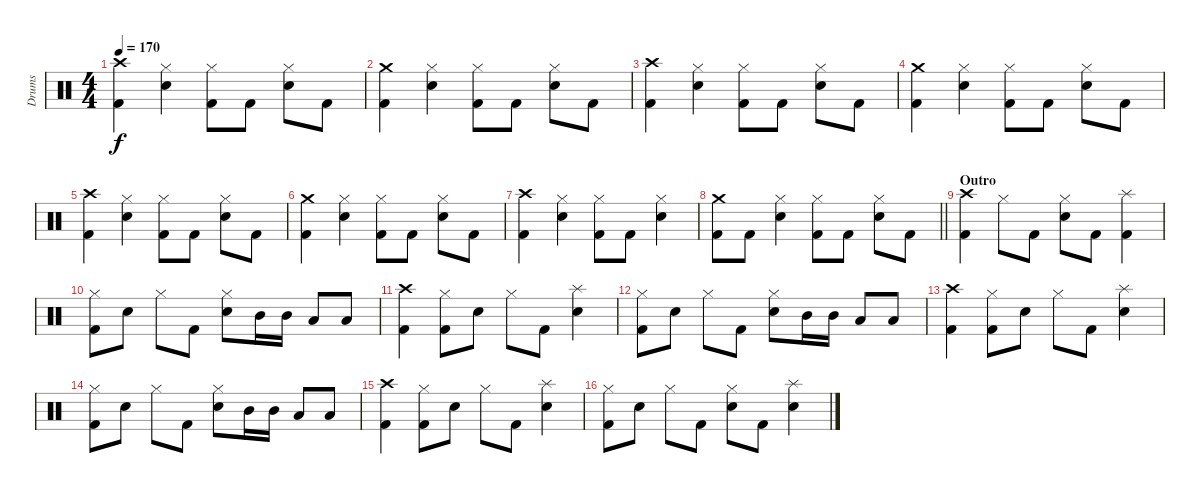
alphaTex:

\track ("Drums" "Drums") {instrument percussion}
\staff {score}
\articulation defaults
\ts (4 4)
\tempo 170
\clef neutral
\ks c
("Kick (hit) 2" "Crash high (hit)").4{dy f} ("Hi-Hat (closed)" "Electric Snare (hit)").4 ("Kick (hit) 2" "Hi-Hat (closed)").8 "Kick (hit) 2".8 ("Hi-Hat (closed)" "Electric Snare (hit)").8 "Kick (hit) 2".8 |
("Kick (hit) 2" "Crash medium (hit)").4 ("Hi-Hat (closed)" "Electric Snare (hit)").4 ("Kick (hit) 2" "Hi-Hat (closed)").8 "Kick (hit) 2".8 ("Hi-Hat (closed)" "Electric Snare (hit)").8 "Kick (hit) 2".8 |
("Kick (hit) 2" "Crash high (hit)").4 ("Hi-Hat (closed)" "Electric Snare (hit)").4 ("Kick (hit) 2" "Hi-Hat (closed)").8 "Kick (hit) 2".8 ("Hi-Hat (closed)" "Electric Snare (hit)").8 "Kick (hit) 2".8 |
("Kick (hit) 2" "Crash medium (hit)").4 ("Hi-Hat (closed)" "Electric Snare (hit)").4 ("Kick (hit) 2" "Hi-Hat (closed)").8 "Kick (hit) 2".8 ("Hi-Hat (closed)" "Electric Snare (hit)").8 "Kick (hit) 2".8 |
("Kick (hit) 2" "Crash high (hit)").4 ("Hi-Hat (closed)" "Electric Snare (hit)").4 ("Kick (hit) 2" "Hi-Hat (closed)").8 "Kick (hit) 2".8 ("Hi-Hat (closed)" "Electric Snare (hit)").8 "Kick (hit) 2".8 |
("Kick (hit) 2" "Crash medium (hit)").4 ("Hi-Hat (closed)" "Electric Snare (hit)").4 ("Kick (hit) 2" "Hi-Hat (closed)").8 "Kick (hit) 2".8 ("Hi-Hat (closed)" "Electric Snare (hit)").8 "Kick (hit) 2".8 |
("Kick (hit) 2" "Crash high (hit)").4 ("Hi-Hat (closed)" "Electric Snare (hit)").4 ("Kick (hit) 2" "Hi-Hat (closed)").8 "Kick (hit) 2".8 ("Hi-Hat (closed)" "Electric Snare (hit)").4 |
\barLineRight lightlight
("Kick (hit) 2" "Crash medium (hit)").8 "Kick (hit) 2".8 ("Hi-Hat (closed)" "Electric Snare (hit)").4 ("Kick (hit) 2" "Hi-Hat (closed)").8 "Kick (hit) 2".8 ("Hi-Hat (closed)" "Electric Snare (hit)").8 "Kick (hit) 2".8 |
\section ("" "Outro")
("Kick (hit) 2" "Crash high (hit)").4 "Hi-Hat (closed)".8 "Kick (hit) 2".8 ("Hi-Hat (closed)" "Electric Snare (hit)").8 "Kick (hit) 2".8 ("Kick (hit) 2" "Splash (hit)").4 |
("Kick (hit) 2" "Hi-Hat (closed)").8 "Electric Snare (hit)".8 "Hi-Hat (closed)".8 "Kick (hit) 2".8 ("Hi-Hat (closed)" "Electric Snare (hit)").8 "Mid Tom (hit)".16 "Mid Tom (hit)".16 "Low Tom (hit)".8 "Low Tom (hit)".8 |
("Kick (hit) 2" "Crash high (hit)").4 ("Kick (hit) 2" "Hi-Hat (closed)").8 "Electric Snare (hit)".8 "Hi-Hat (closed)".8 "Kick (hit) 2".8 ("Splash (hit)" "Electric Snare (hit)").4 |
("Kick (hit) 2" "Hi-Hat (closed)").8 "Electric Snare (hit)".8 "Hi-Hat (closed)".8 "Kick (hit) 2".8 ("Hi-Hat (closed)" "Electric Snare (hit)").8 "Mid Tom (hit)".16 "Mid Tom (hit)".16 "Low Tom (hit)".8 "Low Tom (hit)".8 |
("Kick (hit) 2" "Crash high (hit)").4 ("Kick (hit) 2" "Hi-Hat (closed)").8 "Electric Snare (hit)".8 "Hi-Hat (closed)".8 "Kick (hit) 2".8 ("Splash (hit)" "Electric Snare (hit)").4 |
("Kick (hit) 2" "Hi-Hat (closed)").8 "Electric Snare (hit)".8 "Hi-Hat (closed)".8 "Kick (hit) 2".8 ("Hi-Hat (closed)" "Electric Snare (hit)").8 "Mid Tom (hit)".16 "Mid Tom (hit)".16 "Low Tom (hit)".8 "Low Tom (hit)".8 |
("Kick (hit) 2" "Crash high (hit)").4 ("Kick (hit) 2" "Hi-Hat (closed)").8 "Electric Snare (hit)".8 "Hi-Hat (closed)".8 "Kick (hit) 2".8 ("Splash (hit)" "Electric Snare (hit)").4 |
("Kick (hit) 2" "Hi-Hat (closed)").8 "Electric Snare (hit)".8 "Hi-Hat (closed)".8 "Kick (hit) 2".8 ("Hi-Hat (closed)" "Electric Snare (hit)").8 "Kick (hit) 2".8 ("Splash (hit)" "Electric Snare (hit)").4
